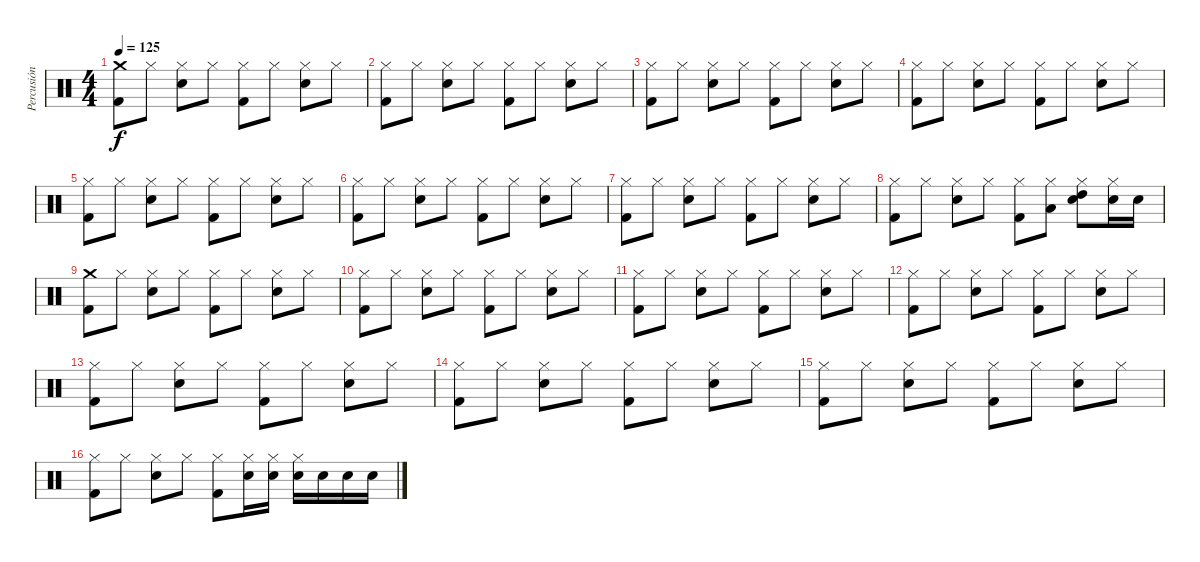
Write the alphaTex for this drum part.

\track ("Percusión" "Percusión") {instrument percussion}
\staff {score}
\articulation defaults
\ts (4 4)
\tempo 125
\clef neutral
\ks c
("Crash medium (hit)" "Kick (hit) 2").8{dy f} "Hi-Hat (closed)".8 ("Hi-Hat (closed)" "Snare (hit) 2").8 "Hi-Hat (closed)".8 ("Hi-Hat (closed)" "Kick (hit) 2").8 "Hi-Hat (closed)".8 ("Hi-Hat (closed)" "Snare (hit) 2").8 "Hi-Hat (closed)".8 |
("Hi-Hat (closed)" "Kick (hit) 2").8 "Hi-Hat (closed)".8 ("Hi-Hat (closed)" "Snare (hit) 2").8 "Hi-Hat (closed)".8 ("Hi-Hat (closed)" "Kick (hit) 2").8 "Hi-Hat (closed)".8 ("Hi-Hat (closed)" "Snare (hit) 2").8 "Hi-Hat (closed)".8 |
("Hi-Hat (closed)" "Kick (hit) 2").8 "Hi-Hat (closed)".8 ("Hi-Hat (closed)" "Snare (hit) 2").8 "Hi-Hat (closed)".8 ("Hi-Hat (closed)" "Kick (hit) 2").8 "Hi-Hat (closed)".8 ("Hi-Hat (closed)" "Snare (hit) 2").8 "Hi-Hat (closed)".8 |
("Hi-Hat (closed)" "Kick (hit) 2").8 "Hi-Hat (closed)".8 ("Hi-Hat (closed)" "Snare (hit) 2").8 "Hi-Hat (closed)".8 ("Hi-Hat (closed)" "Kick (hit) 2").8 "Hi-Hat (closed)".8 ("Hi-Hat (closed)" "Snare (hit) 2").8 "Hi-Hat (closed)".8 |
("Hi-Hat (closed)" "Kick (hit) 2").8 "Hi-Hat (closed)".8 ("Hi-Hat (closed)" "Snare (hit) 2").8 "Hi-Hat (closed)".8 ("Hi-Hat (closed)" "Kick (hit) 2").8 "Hi-Hat (closed)".8 ("Hi-Hat (closed)" "Snare (hit) 2").8 "Hi-Hat (closed)".8 |
("Hi-Hat (closed)" "Kick (hit) 2").8 "Hi-Hat (closed)".8 ("Hi-Hat (closed)" "Snare (hit) 2").8 "Hi-Hat (closed)".8 ("Hi-Hat (closed)" "Kick (hit) 2").8 "Hi-Hat (closed)".8 ("Hi-Hat (closed)" "Snare (hit) 2").8 "Hi-Hat (closed)".8 |
("Hi-Hat (closed)" "Kick (hit) 2").8 "Hi-Hat (closed)".8 ("Hi-Hat (closed)" "Snare (hit) 2").8 "Hi-Hat (closed)".8 ("Hi-Hat (closed)" "Kick (hit) 2").8 "Hi-Hat (closed)".8 ("Hi-Hat (closed)" "Snare (hit) 2").8 "Hi-Hat (closed)".8 |
("Hi-Hat (closed)" "Kick (hit) 2").8 "Hi-Hat (closed)".8 ("Hi-Hat (closed)" "Snare (hit) 2").8 "Hi-Hat (closed)".8 ("Hi-Hat (closed)" "Kick (hit) 2").8 ("Hi-Hat (closed)" "Low Tom (hit)").8 ("Hi-Hat (closed)" "High Tom (hit)" "Snare (hit) 2").8 ("Hi-Hat (closed)" "Snare (hit) 2").16 "Snare (hit) 2".16 |
("Crash medium (hit)" "Kick (hit) 2").8 "Hi-Hat (closed)".8 ("Hi-Hat (closed)" "Snare (hit) 2").8 "Hi-Hat (closed)".8 ("Hi-Hat (closed)" "Kick (hit) 2").8 "Hi-Hat (closed)".8 ("Hi-Hat (closed)" "Snare (hit) 2").8 "Hi-Hat (closed)".8 |
("Hi-Hat (closed)" "Kick (hit) 2").8 "Hi-Hat (closed)".8 ("Hi-Hat (closed)" "Snare (hit) 2").8 "Hi-Hat (closed)".8 ("Hi-Hat (closed)" "Kick (hit) 2").8 "Hi-Hat (closed)".8 ("Hi-Hat (closed)" "Snare (hit) 2").8 "Hi-Hat (closed)".8 |
("Hi-Hat (closed)" "Kick (hit) 2").8 "Hi-Hat (closed)".8 ("Hi-Hat (closed)" "Snare (hit) 2").8 "Hi-Hat (closed)".8 ("Hi-Hat (closed)" "Kick (hit) 2").8 "Hi-Hat (closed)".8 ("Hi-Hat (closed)" "Snare (hit) 2").8 "Hi-Hat (closed)".8 |
("Hi-Hat (closed)" "Kick (hit) 2").8 "Hi-Hat (closed)".8 ("Hi-Hat (closed)" "Snare (hit) 2").8 "Hi-Hat (closed)".8 ("Hi-Hat (closed)" "Kick (hit) 2").8 "Hi-Hat (closed)".8 ("Hi-Hat (closed)" "Snare (hit) 2").8 "Hi-Hat (closed)".8 |
("Hi-Hat (closed)" "Kick (hit) 2").8 "Hi-Hat (closed)".8 ("Hi-Hat (closed)" "Snare (hit) 2").8 "Hi-Hat (closed)".8 ("Hi-Hat (closed)" "Kick (hit) 2").8 "Hi-Hat (closed)".8 ("Hi-Hat (closed)" "Snare (hit) 2").8 "Hi-Hat (closed)".8 |
("Hi-Hat (closed)" "Kick (hit) 2").8 "Hi-Hat (closed)".8 ("Hi-Hat (closed)" "Snare (hit) 2").8 "Hi-Hat (closed)".8 ("Hi-Hat (closed)" "Kick (hit) 2").8 "Hi-Hat (closed)".8 ("Hi-Hat (closed)" "Snare (hit) 2").8 "Hi-Hat (closed)".8 |
("Hi-Hat (closed)" "Kick (hit) 2").8 "Hi-Hat (closed)".8 ("Hi-Hat (closed)" "Snare (hit) 2").8 "Hi-Hat (closed)".8 ("Hi-Hat (closed)" "Kick (hit) 2").8 "Hi-Hat (closed)".8 ("Hi-Hat (closed)" "Snare (hit) 2").8 "Hi-Hat (closed)".8 |
("Hi-Hat (closed)" "Kick (hit) 2").8 "Hi-Hat (closed)".8 ("Hi-Hat (closed)" "Snare (hit) 2").8 "Hi-Hat (closed)".8 ("Hi-Hat (closed)" "Kick (hit) 2").8 ("Hi-Hat (closed)" "Snare (hit) 2").16 ("Hi-Hat (closed)" "Snare (hit) 2").16 ("Hi-Hat (closed)" "Snare (hit) 2").16 "Snare (hit) 2".16 "Snare (hit) 2".16 "Snare (hit) 2".16
